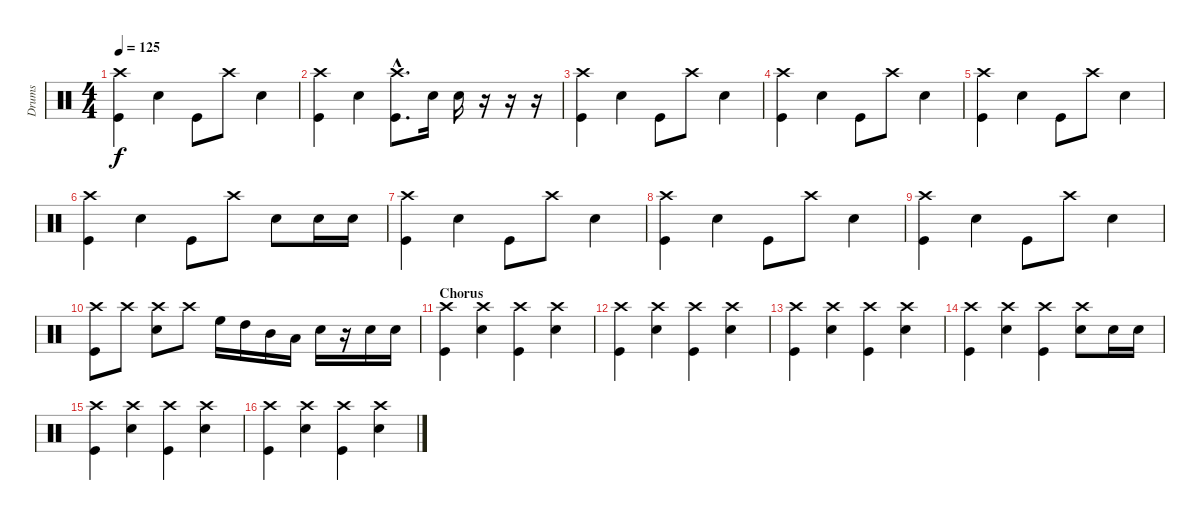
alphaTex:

\track ("Drums" "Drums") {instrument percussion}
\staff {score}
\articulation defaults
\ts (4 4)
\tempo 125
\clef neutral
\ks c
("Crash high (hit)" "Kick (hit)").4{dy f} "Snare (hit) 2".4 "Kick (hit)".8 "Crash high (hit)".8 "Snare (hit) 2".4 |
("Crash high (hit)" "Kick (hit)").4 "Snare (hit) 2".4 ("Crash high (hit)"{hac} "Kick (hit)"{hac}).8{d} "Snare (hit) 2".16 "Snare (hit) 2".16 r.16 r.16 r.16 |
("Crash high (hit)" "Kick (hit)").4 "Snare (hit) 2".4 "Kick (hit)".8 "Crash high (hit)".8 "Snare (hit) 2".4 |
("Crash high (hit)" "Kick (hit)").4 "Snare (hit) 2".4 "Kick (hit)".8 "Crash high (hit)".8 "Snare (hit) 2".4 |
("Crash high (hit)" "Kick (hit)").4 "Snare (hit) 2".4 "Kick (hit)".8 "Crash high (hit)".8 "Snare (hit) 2".4 |
("Crash high (hit)" "Kick (hit)").4 "Snare (hit) 2".4 "Kick (hit)".8 "Crash high (hit)".8 "Snare (hit) 2".8 "Snare (hit) 2".16 "Snare (hit) 2".16 |
("Crash high (hit)" "Kick (hit)").4 "Snare (hit) 2".4 "Kick (hit)".8 "Crash high (hit)".8 "Snare (hit) 2".4 |
("Crash high (hit)" "Kick (hit)").4 "Snare (hit) 2".4 "Kick (hit)".8 "Crash high (hit)".8 "Snare (hit) 2".4 |
("Crash high (hit)" "Kick (hit)").4 "Snare (hit) 2".4 "Kick (hit)".8 "Crash high (hit)".8 "Snare (hit) 2".4 |
("Crash high (hit)" "Kick (hit)").8 "Crash high (hit)".8 ("Crash high (hit)" "Snare (hit) 2").8 "Crash high (hit)".8 "High Floor Tom (hit)".16 "High Tom (hit)".16 "Mid Tom (hit)".16 "Low Tom (hit)".16 "Snare (hit) 2".16 r.16 "Snare (hit) 2".16 "Snare (hit) 2".16 |
\section ("" "Chorus")
("Crash high (hit)" "Kick (hit)").4 ("Crash high (hit)" "Snare (hit) 2").4 ("Crash high (hit)" "Kick (hit)").4 ("Crash high (hit)" "Snare (hit) 2").4 |
("Crash high (hit)" "Kick (hit)").4 ("Crash high (hit)" "Snare (hit) 2").4 ("Crash high (hit)" "Kick (hit)").4 ("Crash high (hit)" "Snare (hit) 2").4 |
("Crash high (hit)" "Kick (hit)").4 ("Crash high (hit)" "Snare (hit) 2").4 ("Crash high (hit)" "Kick (hit)").4 ("Crash high (hit)" "Snare (hit) 2").4 |
("Crash high (hit)" "Kick (hit)").4 ("Crash high (hit)" "Snare (hit) 2").4 ("Crash high (hit)" "Kick (hit)").4 ("Crash high (hit)" "Snare (hit) 2").8 "Snare (hit) 2".16 "Snare (hit) 2".16 |
("Crash high (hit)" "Kick (hit)").4 ("Crash high (hit)" "Snare (hit) 2").4 ("Crash high (hit)" "Kick (hit)").4 ("Crash high (hit)" "Snare (hit) 2").4 |
("Crash high (hit)" "Kick (hit)").4 ("Crash high (hit)" "Snare (hit) 2").4 ("Crash high (hit)" "Kick (hit)").4 ("Crash high (hit)" "Snare (hit) 2").4
